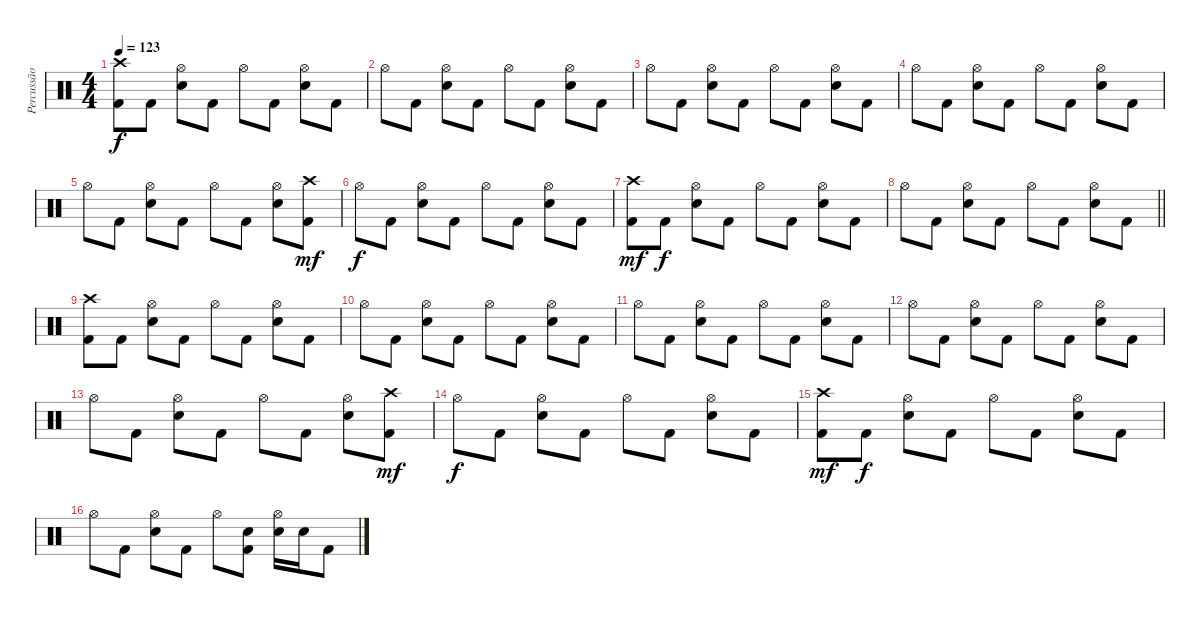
\track ("Percussão" "Percussão") {instrument percussion}
\staff {score}
\articulation defaults
\ts (4 4)
\tempo 123
\clef neutral
\ks c
("Crash high (hit)" "Kick (hit) 2").8{dy f} "Kick (hit) 2".8 ("Hi-Hat (open)" "Snare (hit) 2").8 "Kick (hit) 2".8 "Hi-Hat (open)".8 "Kick (hit) 2".8 ("Hi-Hat (open)" "Snare (hit) 2").8 "Kick (hit) 2".8 |
"Hi-Hat (open)".8 "Kick (hit) 2".8 ("Hi-Hat (open)" "Snare (hit) 2").8 "Kick (hit) 2".8 "Hi-Hat (open)".8 "Kick (hit) 2".8 ("Hi-Hat (open)" "Snare (hit) 2").8 "Kick (hit) 2".8 |
"Hi-Hat (open)".8 "Kick (hit) 2".8 ("Hi-Hat (open)" "Snare (hit) 2").8 "Kick (hit) 2".8 "Hi-Hat (open)".8 "Kick (hit) 2".8 ("Hi-Hat (open)" "Snare (hit) 2").8 "Kick (hit) 2".8 |
"Hi-Hat (open)".8 "Kick (hit) 2".8 ("Hi-Hat (open)" "Snare (hit) 2").8 "Kick (hit) 2".8 "Hi-Hat (open)".8 "Kick (hit) 2".8 ("Hi-Hat (open)" "Snare (hit) 2").8 "Kick (hit) 2".8 |
"Hi-Hat (open)".8 "Kick (hit) 2".8 ("Hi-Hat (open)" "Snare (hit) 2").8 "Kick (hit) 2".8 "Hi-Hat (open)".8 "Kick (hit) 2".8 ("Hi-Hat (open)" "Snare (hit) 2").8 ("Crash high (hit)" "Kick (hit) 2").8{dy mf} |
"Hi-Hat (open)".8{dy f} "Kick (hit) 2".8 ("Hi-Hat (open)" "Snare (hit) 2").8 "Kick (hit) 2".8 "Hi-Hat (open)".8 "Kick (hit) 2".8 ("Hi-Hat (open)" "Snare (hit) 2").8 "Kick (hit) 2".8 |
("Crash high (hit)" "Kick (hit) 2").8{dy mf} "Kick (hit) 2".8{dy f} ("Hi-Hat (open)" "Snare (hit) 2").8 "Kick (hit) 2".8 "Hi-Hat (open)".8 "Kick (hit) 2".8 ("Hi-Hat (open)" "Snare (hit) 2").8 "Kick (hit) 2".8 |
\barLineRight lightlight "Hi-Hat (open)".8 "Kick (hit) 2".8
("Hi-Hat (open)" "Snare (hit) 2").8 "Kick (hit) 2".8 "Hi-Hat (open)".8 "Kick (hit) 2".8 ("Hi-Hat (open)" "Snare (hit) 2").8 "Kick (hit) 2".8 |
("Crash high (hit)" "Kick (hit) 2").8 "Kick (hit) 2".8 ("Hi-Hat (open)" "Snare (hit) 2").8 "Kick (hit) 2".8 "Hi-Hat (open)".8 "Kick (hit) 2".8 ("Hi-Hat (open)" "Snare (hit) 2").8 "Kick (hit) 2".8 |
"Hi-Hat (open)".8 "Kick (hit) 2".8 ("Hi-Hat (open)" "Snare (hit) 2").8 "Kick (hit) 2".8 "Hi-Hat (open)".8 "Kick (hit) 2".8 ("Hi-Hat (open)" "Snare (hit) 2").8 "Kick (hit) 2".8 |
"Hi-Hat (open)".8 "Kick (hit) 2".8 ("Hi-Hat (open)" "Snare (hit) 2").8 "Kick (hit) 2".8 "Hi-Hat (open)".8 "Kick (hit) 2".8 ("Hi-Hat (open)" "Snare (hit) 2").8 "Kick (hit) 2".8 |
"Hi-Hat (open)".8 "Kick (hit) 2".8 ("Hi-Hat (open)" "Snare (hit) 2").8 "Kick (hit) 2".8 "Hi-Hat (open)".8 "Kick (hit) 2".8 ("Hi-Hat (open)" "Snare (hit) 2").8 "Kick (hit) 2".8 |
"Hi-Hat (open)".8 "Kick (hit) 2".8 ("Hi-Hat (open)" "Snare (hit) 2").8 "Kick (hit) 2".8 "Hi-Hat (open)".8 "Kick (hit) 2".8 ("Hi-Hat (open)" "Snare (hit) 2").8 ("Crash high (hit)" "Kick (hit) 2").8{dy mf} |
"Hi-Hat (open)".8{dy f} "Kick (hit) 2".8 ("Hi-Hat (open)" "Snare (hit) 2").8 "Kick (hit) 2".8 "Hi-Hat (open)".8 "Kick (hit) 2".8 ("Hi-Hat (open)" "Snare (hit) 2").8 "Kick (hit) 2".8 |
("Crash high (hit)" "Kick (hit) 2").8{dy mf} "Kick (hit) 2".8{dy f} ("Hi-Hat (open)" "Snare (hit) 2").8 "Kick (hit) 2".8 "Hi-Hat (open)".8 "Kick (hit) 2".8 ("Hi-Hat (open)" "Snare (hit) 2").8 "Kick (hit) 2".8 |
"Hi-Hat (open)".8 "Kick (hit) 2".8 ("Hi-Hat (open)" "Snare (hit) 2").8 "Kick (hit) 2".8 "Hi-Hat (open)".8 ("Snare (hit) 2" "Kick (hit) 2").8 ("Hi-Hat (open)" "Snare (hit) 2").16 "Snare (hit) 2".16 "Kick (hit) 2".8
